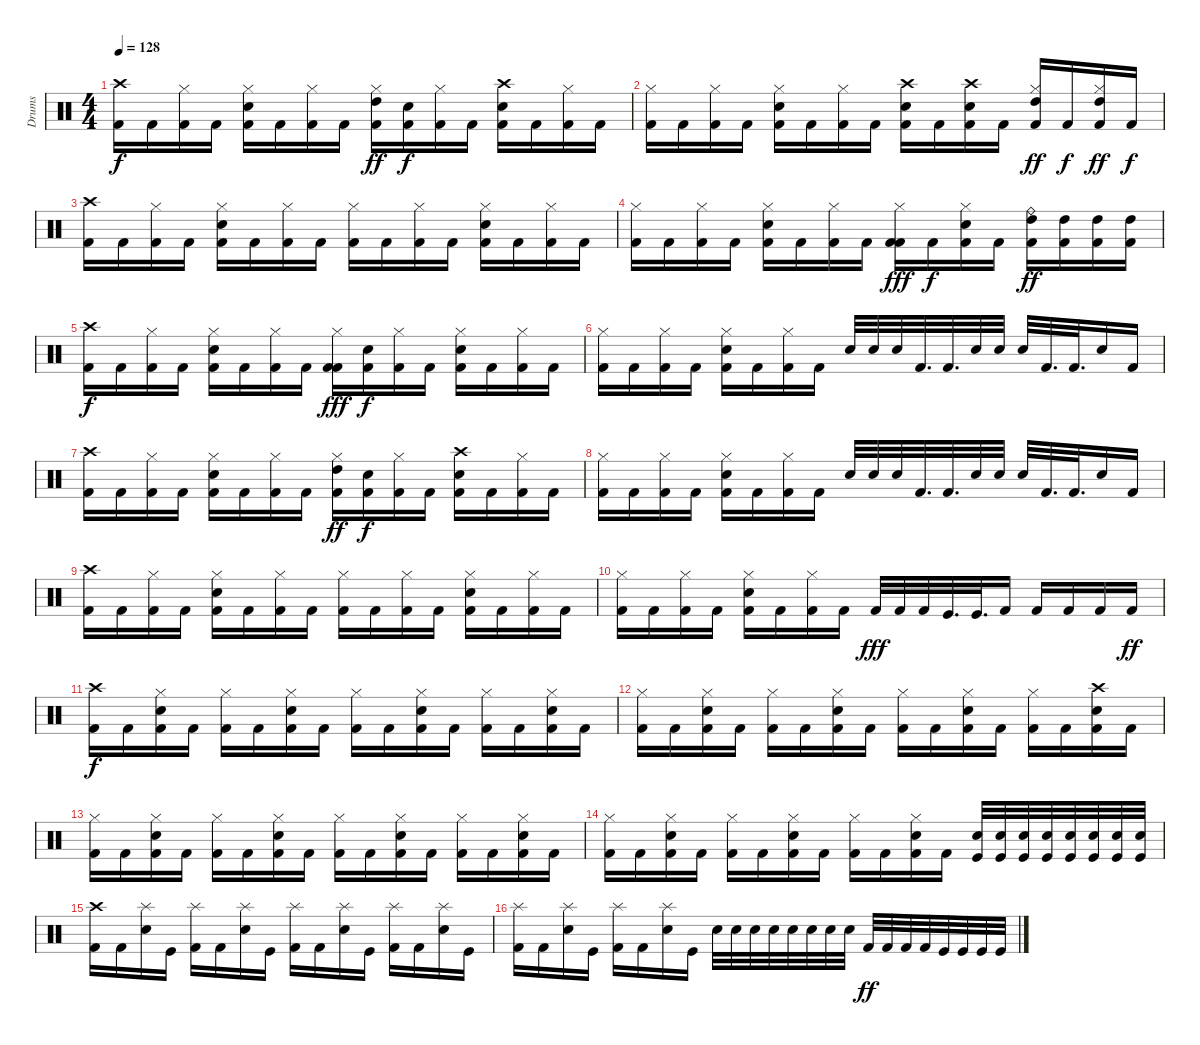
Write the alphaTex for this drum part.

\track ("Drums" "Drums") {instrument percussion}
\staff {score}
\articulation defaults
\ts (4 4)
\tempo 128
\clef neutral
\ks c
("Crash high (hit)" "Kick (hit) 2").16{dy f} "Kick (hit) 2".16 ("Hi-Hat (closed)" "Kick (hit) 2").16 "Kick (hit) 2".16 ("Hi-Hat (closed)" "Electric Snare (hit)" "Kick (hit) 2").16 "Kick (hit) 2".16 ("Hi-Hat (closed)" "Kick (hit) 2").16 "Kick (hit) 2".16 ("Hi-Hat (closed)" "High Tom (hit)" "Kick (hit) 2").16{dy ff} ("Electric Snare (hit)" "Kick (hit) 2").16{dy f} ("Hi-Hat (closed)" "Kick (hit) 2").16 "Kick (hit) 2".16 ("Crash high (hit)" "Electric Snare (hit)" "Kick (hit) 2").16 "Kick (hit) 2".16 ("Hi-Hat (closed)" "Kick (hit) 2").16 "Kick (hit) 2".16 |
("Hi-Hat (closed)" "Kick (hit) 2").16 "Kick (hit) 2".16 ("Hi-Hat (closed)" "Kick (hit) 2").16 "Kick (hit) 2".16 ("Hi-Hat (closed)" "Electric Snare (hit)" "Kick (hit) 2").16 "Kick (hit) 2".16 ("Hi-Hat (closed)" "Kick (hit) 2").16 "Kick (hit) 2".16 ("Crash high (hit)" "Electric Snare (hit)" "Kick (hit) 2").16 "Kick (hit) 2".16 ("Crash high (hit)" "Electric Snare (hit)" "Kick (hit) 2").16 "Kick (hit) 2".16 ("Hi-Hat (closed)" "High Tom (hit)" "Kick (hit) 2").16{dy ff} "Kick (hit) 2".16{dy f} ("Hi-Hat (closed)" "High Tom (hit)" "Kick (hit) 2").16{dy ff} "Kick (hit) 2".16{dy f} |
("Crash high (hit)" "Kick (hit) 2").16 "Kick (hit) 2".16 ("Hi-Hat (closed)" "Kick (hit) 2").16 "Kick (hit) 2".16 ("Hi-Hat (closed)" "Electric Snare (hit)" "Kick (hit) 2").16 "Kick (hit) 2".16 ("Hi-Hat (closed)" "Kick (hit) 2").16 "Kick (hit) 2".16 ("Hi-Hat (closed)" "Kick (hit) 2").16 "Kick (hit) 2".16 ("Hi-Hat (closed)" "Kick (hit) 2").16 "Kick (hit) 2".16 ("Hi-Hat (closed)" "Electric Snare (hit)" "Kick (hit) 2").16 "Kick (hit) 2".16 ("Hi-Hat (closed)" "Kick (hit) 2").16 "Kick (hit) 2".16 |
("Hi-Hat (closed)" "Kick (hit) 2").16 "Kick (hit) 2".16 ("Hi-Hat (closed)" "Kick (hit) 2").16 "Kick (hit) 2".16 ("Hi-Hat (closed)" "Electric Snare (hit)" "Kick (hit) 2").16 "Kick (hit) 2".16 ("Hi-Hat (closed)" "Kick (hit) 2").16 "Kick (hit) 2".16 ("Hi-Hat (closed)" "Kick (hit) 2" "Kick (hit) 2").16{dy fff} "Kick (hit) 2".16{dy f} ("Hi-Hat (closed)" "Electric Snare (hit)" "Kick (hit) 2").16 "Kick (hit) 2".16 ("Ride (bell)" "High Tom (hit)" "Kick (hit) 2").16{dy ff} ("High Tom (hit)" "Kick (hit) 2").16 ("High Tom (hit)" "Kick (hit) 2").16 ("High Tom (hit)" "Kick (hit) 2").16 |
("Crash high (hit)" "Kick (hit) 2").16{dy f} "Kick (hit) 2".16 ("Hi-Hat (closed)" "Kick (hit) 2").16 "Kick (hit) 2".16 ("Hi-Hat (closed)" "Electric Snare (hit)" "Kick (hit) 2").16 "Kick (hit) 2".16 ("Hi-Hat (closed)" "Kick (hit) 2").16 "Kick (hit) 2".16 ("Hi-Hat (closed)" "Kick (hit) 2" "Kick (hit) 2").16{dy fff} ("Electric Snare (hit)" "Kick (hit) 2").16{dy f} ("Hi-Hat (closed)" "Kick (hit) 2").16 "Kick (hit) 2".16 ("Hi-Hat (closed)" "Electric Snare (hit)" "Kick (hit) 2").16 "Kick (hit) 2".16 ("Hi-Hat (closed)" "Kick (hit) 2").16 "Kick (hit) 2".16 |
("Hi-Hat (closed)" "Kick (hit) 2").16 "Kick (hit) 2".16 ("Hi-Hat (closed)" "Kick (hit) 2").16 "Kick (hit) 2".16 ("Hi-Hat (closed)" "Electric Snare (hit)" "Kick (hit) 2").16 "Kick (hit) 2".16 ("Hi-Hat (closed)" "Kick (hit) 2").16 "Kick (hit) 2".16 "Electric Snare (hit)".32 "Electric Snare (hit)".32 "Electric Snare (hit)".32 "Kick (hit) 2".32{d} "Kick (hit) 2".32{d} "Electric Snare (hit)".32 "Electric Snare (hit)".32 "Electric Snare (hit)".32 "Kick (hit) 2".32{d} "Kick (hit) 2".32{d} "Electric Snare (hit)".16 "Kick (hit) 2".16 |
("Crash high (hit)" "Kick (hit) 2").16 "Kick (hit) 2".16 ("Hi-Hat (closed)" "Kick (hit) 2").16 "Kick (hit) 2".16 ("Hi-Hat (closed)" "Electric Snare (hit)" "Kick (hit) 2").16 "Kick (hit) 2".16 ("Hi-Hat (closed)" "Kick (hit) 2").16 "Kick (hit) 2".16 ("Hi-Hat (closed)" "High Tom (hit)" "Kick (hit) 2").16{dy ff} ("Electric Snare (hit)" "Kick (hit) 2").16{dy f} ("Hi-Hat (closed)" "Kick (hit) 2").16 "Kick (hit) 2".16 ("Crash high (hit)" "Electric Snare (hit)" "Kick (hit) 2").16 "Kick (hit) 2".16 ("Hi-Hat (closed)" "Kick (hit) 2").16 "Kick (hit) 2".16 |
("Hi-Hat (closed)" "Kick (hit) 2").16 "Kick (hit) 2".16 ("Hi-Hat (closed)" "Kick (hit) 2").16 "Kick (hit) 2".16 ("Hi-Hat (closed)" "Electric Snare (hit)" "Kick (hit) 2").16 "Kick (hit) 2".16 ("Hi-Hat (closed)" "Kick (hit) 2").16 "Kick (hit) 2".16 "Snare (hit) 2".32 "Snare (hit) 2".32 "Snare (hit) 2".32 "Kick (hit) 2".32{d} "Kick (hit) 2".32{d} "Snare (hit) 2".32 "Snare (hit) 2".32 "Snare (hit) 2".32 "Kick (hit) 2".32{d} "Kick (hit) 2".32{d} "Snare (hit) 2".16 "Kick (hit) 2".16 |
("Crash high (hit)" "Kick (hit) 2").16 "Kick (hit) 2".16 ("Hi-Hat (closed)" "Kick (hit) 2").16 "Kick (hit) 2".16 ("Hi-Hat (closed)" "Electric Snare (hit)" "Kick (hit) 2").16 "Kick (hit) 2".16 ("Hi-Hat (closed)" "Kick (hit) 2").16 "Kick (hit) 2".16 ("Hi-Hat (closed)" "Kick (hit) 2").16 "Kick (hit) 2".16 ("Hi-Hat (closed)" "Kick (hit) 2").16 "Kick (hit) 2".16 ("Hi-Hat (closed)" "Electric Snare (hit)" "Kick (hit) 2").16 "Kick (hit) 2".16 ("Hi-Hat (closed)" "Kick (hit) 2").16 "Kick (hit) 2".16 |
("Hi-Hat (closed)" "Kick (hit) 2").16 "Kick (hit) 2".16 ("Hi-Hat (closed)" "Kick (hit) 2").16 "Kick (hit) 2".16 ("Hi-Hat (closed)" "Electric Snare (hit)" "Kick (hit) 2").16 "Kick (hit) 2".16 ("Hi-Hat (closed)" "Kick (hit) 2").16 "Kick (hit) 2".16 "Kick (hit) 2".32{dy fff} "Kick (hit) 2".32 "Kick (hit) 2".32 "Kick (hit)".32{d} "Kick (hit)".32{d} "Kick (hit) 2".16 "Kick (hit) 2".16 "Kick (hit) 2".16 "Kick (hit) 2".16 "Kick (hit) 2".16{dy ff} |
("Crash high (hit)" "Kick (hit) 2").16{dy f} "Kick (hit) 2".16 ("Hi-Hat (closed)" "Electric Snare (hit)" "Kick (hit) 2").16 "Kick (hit) 2".16 ("Hi-Hat (closed)" "Kick (hit) 2").16 "Kick (hit) 2".16 ("Hi-Hat (closed)" "Electric Snare (hit)" "Kick (hit) 2").16 "Kick (hit) 2".16 ("Hi-Hat (closed)" "Kick (hit) 2").16 "Kick (hit) 2".16 ("Hi-Hat (closed)" "Electric Snare (hit)" "Kick (hit) 2").16 "Kick (hit) 2".16 ("Hi-Hat (closed)" "Kick (hit) 2").16 "Kick (hit) 2".16 ("Hi-Hat (closed)" "Electric Snare (hit)" "Kick (hit) 2").16 "Kick (hit) 2".16 |
("Hi-Hat (closed)" "Kick (hit) 2").16 "Kick (hit) 2".16 ("Hi-Hat (closed)" "Electric Snare (hit)" "Kick (hit) 2").16 "Kick (hit) 2".16 ("Hi-Hat (closed)" "Kick (hit) 2").16 "Kick (hit) 2".16 ("Hi-Hat (closed)" "Electric Snare (hit)" "Kick (hit) 2").16 "Kick (hit) 2".16 ("Hi-Hat (closed)" "Kick (hit) 2").16 "Kick (hit) 2".16 ("Hi-Hat (closed)" "Electric Snare (hit)" "Kick (hit) 2").16 "Kick (hit) 2".16 ("Hi-Hat (closed)" "Kick (hit) 2").16 "Kick (hit) 2".16 ("Crash high (hit)" "Electric Snare (hit)" "Kick (hit) 2").16 "Kick (hit) 2".16 |
("Hi-Hat (closed)" "Kick (hit) 2").16 "Kick (hit) 2".16 ("Hi-Hat (closed)" "Electric Snare (hit)" "Kick (hit) 2").16 "Kick (hit) 2".16 ("Hi-Hat (closed)" "Kick (hit) 2").16 "Kick (hit) 2".16 ("Hi-Hat (closed)" "Electric Snare (hit)" "Kick (hit) 2").16 "Kick (hit) 2".16 ("Hi-Hat (closed)" "Kick (hit) 2").16 "Kick (hit) 2".16 ("Hi-Hat (closed)" "Electric Snare (hit)" "Kick (hit) 2").16 "Kick (hit) 2".16 ("Hi-Hat (closed)" "Kick (hit) 2").16 "Kick (hit) 2".16 ("Hi-Hat (closed)" "Electric Snare (hit)" "Kick (hit) 2").16 "Kick (hit) 2".16 |
("Hi-Hat (closed)" "Kick (hit) 2").16 "Kick (hit) 2".16 ("Hi-Hat (closed)" "Electric Snare (hit)" "Kick (hit) 2").16 "Kick (hit) 2".16 ("Hi-Hat (closed)" "Kick (hit) 2").16 "Kick (hit) 2".16 ("Hi-Hat (closed)" "Electric Snare (hit)" "Kick (hit) 2").16 "Kick (hit) 2".16 ("Hi-Hat (closed)" "Kick (hit) 2").16 "Kick (hit) 2".16 ("Hi-Hat (closed)" "Electric Snare (hit)" "Kick (hit) 2").16 "Kick (hit) 2".16 ("Electric Snare (hit)" "Kick (hit)").32 ("Electric Snare (hit)" "Kick (hit)").32 ("Electric Snare (hit)" "Kick (hit)").32 ("Electric Snare (hit)" "Kick (hit)").32 ("Electric Snare (hit)" "Kick (hit)").32 ("Electric Snare (hit)" "Kick (hit)").32 ("Electric Snare (hit)" "Kick (hit)").32 ("Electric Snare (hit)" "Kick (hit)").32 |
("Crash high (hit)" "Kick (hit) 2").16 "Kick (hit) 2".16 ("Splash (hit)" "Electric Snare (hit)").16 "Kick (hit)".16 ("Splash (hit)" "Kick (hit) 2").16 "Kick (hit) 2".16 ("Splash (hit)" "Electric Snare (hit)").16 "Kick (hit)".16 ("Splash (hit)" "Kick (hit) 2").16 "Kick (hit) 2".16 ("Splash (hit)" "Electric Snare (hit)").16 "Kick (hit)".16 ("Splash (hit)" "Kick (hit) 2").16 "Kick (hit) 2".16 ("Splash (hit)" "Electric Snare (hit)").16 "Kick (hit)".16 |
("Splash (hit)" "Kick (hit) 2").16 "Kick (hit) 2".16 ("Splash (hit)" "Electric Snare (hit)").16 "Kick (hit)".16 ("Splash (hit)" "Kick (hit) 2").16 "Kick (hit) 2".16 ("Splash (hit)" "Electric Snare (hit)").16 "Kick (hit)".16 "Electric Snare (hit)".32 "Electric Snare (hit)".32 "Electric Snare (hit)".32 "Electric Snare (hit)".32 "Snare (hit) 2".32 "Snare (hit) 2".32 "Snare (hit) 2".32 "Snare (hit) 2".32 "Kick (hit) 2".32{dy ff} "Kick (hit) 2".32 "Kick (hit) 2".32 "Kick (hit) 2".32 "Kick (hit)".32 "Kick (hit)".32 "Kick (hit)".32 "Kick (hit)".32
